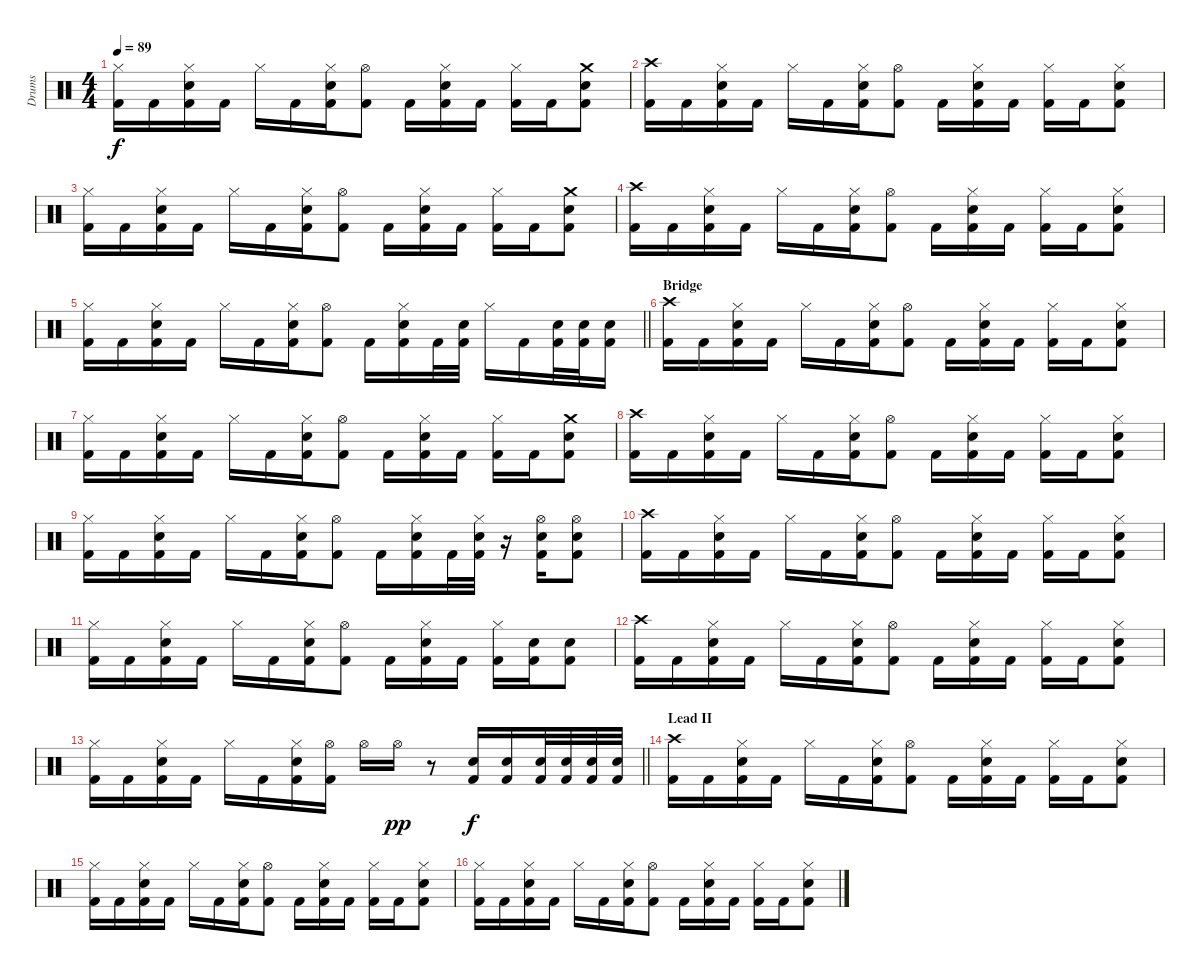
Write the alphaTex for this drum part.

\track ("Drums" "Drums") {instrument percussion}
\staff {score}
\articulation defaults
\ts (4 4)
\tempo 89
\clef neutral
\ks c
("Hi-Hat (closed)" "Kick (hit) 2").16{dy f} "Kick (hit) 2".16 ("Hi-Hat (closed)" "Snare (hit) 2" "Kick (hit) 2").16 "Kick (hit) 2".16 "Hi-Hat (closed)".16 "Kick (hit) 2".16 ("Hi-Hat (closed)" "Snare (hit) 2" "Kick (hit) 2").16 ("Hi-Hat (open)" "Kick (hit) 2").8 "Kick (hit) 2".16 ("Hi-Hat (closed)" "Snare (hit) 2" "Kick (hit) 2").16 "Kick (hit) 2".16 ("Hi-Hat (closed)" "Kick (hit) 2").16 "Kick (hit) 2".16 ("Crash medium (hit)" "Snare (hit) 2" "Kick (hit) 2").8 |
("Crash high (hit)" "Kick (hit) 2").16 "Kick (hit) 2".16 ("Hi-Hat (closed)" "Snare (hit) 2" "Kick (hit) 2").16 "Kick (hit) 2".16 "Hi-Hat (closed)".16 "Kick (hit) 2".16 ("Hi-Hat (closed)" "Snare (hit) 2" "Kick (hit) 2").16 ("Hi-Hat (open)" "Kick (hit) 2").8 "Kick (hit) 2".16 ("Hi-Hat (closed)" "Snare (hit) 2" "Kick (hit) 2").16 "Kick (hit) 2".16 ("Hi-Hat (closed)" "Kick (hit) 2").16 "Kick (hit) 2".16 ("Hi-Hat (closed)" "Snare (hit) 2" "Kick (hit) 2").8 |
("Hi-Hat (closed)" "Kick (hit) 2").16 "Kick (hit) 2".16 ("Hi-Hat (closed)" "Snare (hit) 2" "Kick (hit) 2").16 "Kick (hit) 2".16 "Hi-Hat (closed)".16 "Kick (hit) 2".16 ("Hi-Hat (closed)" "Snare (hit) 2" "Kick (hit) 2").16 ("Hi-Hat (open)" "Kick (hit) 2").8 "Kick (hit) 2".16 ("Hi-Hat (closed)" "Snare (hit) 2" "Kick (hit) 2").16 "Kick (hit) 2".16 ("Hi-Hat (closed)" "Kick (hit) 2").16 "Kick (hit) 2".16 ("Crash medium (hit)" "Snare (hit) 2" "Kick (hit) 2").8 |
("Crash high (hit)" "Kick (hit) 2").16 "Kick (hit) 2".16 ("Hi-Hat (closed)" "Snare (hit) 2" "Kick (hit) 2").16 "Kick (hit) 2".16 "Hi-Hat (closed)".16 "Kick (hit) 2".16 ("Hi-Hat (closed)" "Snare (hit) 2" "Kick (hit) 2").16 ("Hi-Hat (open)" "Kick (hit) 2").8 "Kick (hit) 2".16 ("Hi-Hat (closed)" "Snare (hit) 2" "Kick (hit) 2").16 "Kick (hit) 2".16 ("Hi-Hat (closed)" "Kick (hit) 2").16 "Kick (hit) 2".16 ("Hi-Hat (closed)" "Snare (hit) 2" "Kick (hit) 2").8 |
\barLineRight lightlight
("Hi-Hat (closed)" "Kick (hit) 2").16 "Kick (hit) 2".16 ("Hi-Hat (closed)" "Snare (hit) 2" "Kick (hit) 2").16 "Kick (hit) 2".16 "Hi-Hat (closed)".16 "Kick (hit) 2".16 ("Hi-Hat (closed)" "Snare (hit) 2" "Kick (hit) 2").16 ("Hi-Hat (open)" "Kick (hit) 2").8 "Kick (hit) 2".16 ("Hi-Hat (closed)" "Snare (hit) 2" "Kick (hit) 2").16 "Kick (hit) 2".32 ("Snare (hit) 2" "Kick (hit) 2").32 "Hi-Hat (closed)".16 "Kick (hit) 2".16 ("Snare (hit) 2" "Kick (hit) 2").32 ("Snare (hit) 2" "Kick (hit) 2").32 ("Snare (hit) 2" "Kick (hit) 2").16 |
\section ("" "Bridge")
("Crash high (hit)" "Kick (hit) 2").16 "Kick (hit) 2".16 ("Hi-Hat (closed)" "Snare (hit) 2" "Kick (hit) 2").16 "Kick (hit) 2".16 "Hi-Hat (closed)".16 "Kick (hit) 2".16 ("Hi-Hat (closed)" "Snare (hit) 2" "Kick (hit) 2").16 ("Hi-Hat (open)" "Kick (hit) 2").8 "Kick (hit) 2".16 ("Hi-Hat (closed)" "Snare (hit) 2" "Kick (hit) 2").16 "Kick (hit) 2".16 ("Hi-Hat (closed)" "Kick (hit) 2").16 "Kick (hit) 2".16 ("Hi-Hat (closed)" "Snare (hit) 2" "Kick (hit) 2").8 |
("Hi-Hat (closed)" "Kick (hit) 2").16 "Kick (hit) 2".16 ("Hi-Hat (closed)" "Snare (hit) 2" "Kick (hit) 2").16 "Kick (hit) 2".16 "Hi-Hat (closed)".16 "Kick (hit) 2".16 ("Hi-Hat (closed)" "Snare (hit) 2" "Kick (hit) 2").16 ("Hi-Hat (open)" "Kick (hit) 2").8 "Kick (hit) 2".16 ("Hi-Hat (closed)" "Snare (hit) 2" "Kick (hit) 2").16 "Kick (hit) 2".16 ("Hi-Hat (closed)" "Kick (hit) 2").16 "Kick (hit) 2".16 ("Crash medium (hit)" "Snare (hit) 2" "Kick (hit) 2").8 |
("Crash high (hit)" "Kick (hit) 2").16 "Kick (hit) 2".16 ("Hi-Hat (closed)" "Snare (hit) 2" "Kick (hit) 2").16 "Kick (hit) 2".16 "Hi-Hat (closed)".16 "Kick (hit) 2".16 ("Hi-Hat (closed)" "Snare (hit) 2" "Kick (hit) 2").16 ("Hi-Hat (open)" "Kick (hit) 2").8 "Kick (hit) 2".16 ("Hi-Hat (closed)" "Snare (hit) 2" "Kick (hit) 2").16 "Kick (hit) 2".16 ("Hi-Hat (closed)" "Kick (hit) 2").16 "Kick (hit) 2".16 ("Hi-Hat (closed)" "Snare (hit) 2" "Kick (hit) 2").8 |
("Hi-Hat (closed)" "Kick (hit) 2").16 "Kick (hit) 2".16 ("Hi-Hat (closed)" "Snare (hit) 2" "Kick (hit) 2").16 "Kick (hit) 2".16 "Hi-Hat (closed)".16 "Kick (hit) 2".16 ("Hi-Hat (closed)" "Snare (hit) 2" "Kick (hit) 2").16 ("Hi-Hat (open)" "Kick (hit) 2").8 "Kick (hit) 2".16 ("Hi-Hat (closed)" "Snare (hit) 2" "Kick (hit) 2").16 "Kick (hit) 2".32 ("Hi-Hat (closed)" "Snare (hit) 2" "Kick (hit) 2").32 r.16 ("Hi-Hat (open)" "Snare (hit) 2" "Kick (hit) 2").16 ("Hi-Hat (open)" "Snare (hit) 2" "Kick (hit) 2").8 |
("Crash high (hit)" "Kick (hit) 2").16 "Kick (hit) 2".16 ("Hi-Hat (closed)" "Snare (hit) 2" "Kick (hit) 2").16 "Kick (hit) 2".16 "Hi-Hat (closed)".16 "Kick (hit) 2".16 ("Hi-Hat (closed)" "Snare (hit) 2" "Kick (hit) 2").16 ("Hi-Hat (open)" "Kick (hit) 2").8 "Kick (hit) 2".16 ("Hi-Hat (closed)" "Snare (hit) 2" "Kick (hit) 2").16 "Kick (hit) 2".16 ("Hi-Hat (closed)" "Kick (hit) 2").16 "Kick (hit) 2".16 ("Hi-Hat (closed)" "Snare (hit) 2" "Kick (hit) 2").8 |
("Hi-Hat (closed)" "Kick (hit) 2").16 "Kick (hit) 2".16 ("Hi-Hat (closed)" "Snare (hit) 2" "Kick (hit) 2").16 "Kick (hit) 2".16 "Hi-Hat (closed)".16 "Kick (hit) 2".16 ("Hi-Hat (closed)" "Snare (hit) 2" "Kick (hit) 2").16 ("Hi-Hat (open)" "Kick (hit) 2").8 "Kick (hit) 2".16 ("Hi-Hat (closed)" "Snare (hit) 2" "Kick (hit) 2").16 "Kick (hit) 2".16 ("Hi-Hat (closed)" "Kick (hit) 2").16 ("Snare (hit) 2" "Kick (hit) 2").16 ("Snare (hit) 2" "Kick (hit) 2").8 |
("Crash high (hit)" "Kick (hit) 2").16 "Kick (hit) 2".16 ("Hi-Hat (closed)" "Snare (hit) 2" "Kick (hit) 2").16 "Kick (hit) 2".16 "Hi-Hat (closed)".16 "Kick (hit) 2".16 ("Hi-Hat (closed)" "Snare (hit) 2" "Kick (hit) 2").16 ("Hi-Hat (open)" "Kick (hit) 2").8 "Kick (hit) 2".16 ("Hi-Hat (closed)" "Snare (hit) 2" "Kick (hit) 2").16 "Kick (hit) 2".16 ("Hi-Hat (closed)" "Kick (hit) 2").16 "Kick (hit) 2".16 ("Hi-Hat (closed)" "Snare (hit) 2" "Kick (hit) 2").8 |
\barLineRight lightlight
("Hi-Hat (closed)" "Kick (hit) 2").16 "Kick (hit) 2".16 ("Hi-Hat (closed)" "Snare (hit) 2" "Kick (hit) 2").16 "Kick (hit) 2".16 "Hi-Hat (closed)".16 "Kick (hit) 2".16 ("Hi-Hat (closed)" "Snare (hit) 2" "Kick (hit) 2").16 ("Hi-Hat (open)" "Kick (hit) 2").16 "Hi-Hat (open)".16 "Hi-Hat (open)".16{dy pp} r.8 ("Snare (hit) 2" "Kick (hit) 2").16{dy f} ("Snare (hit) 2" "Kick (hit) 2").16 ("Snare (hit) 2" "Kick (hit) 2").32 ("Snare (hit) 2" "Kick (hit) 2").32 ("Snare (hit) 2" "Kick (hit) 2").32 ("Snare (hit) 2" "Kick (hit) 2").32 |
\section ("" "Lead II")
("Crash high (hit)" "Kick (hit) 2").16 "Kick (hit) 2".16 ("Hi-Hat (closed)" "Snare (hit) 2" "Kick (hit) 2").16 "Kick (hit) 2".16 "Hi-Hat (closed)".16 "Kick (hit) 2".16 ("Hi-Hat (closed)" "Snare (hit) 2" "Kick (hit) 2").16 ("Hi-Hat (open)" "Kick (hit) 2").8 "Kick (hit) 2".16 ("Hi-Hat (closed)" "Snare (hit) 2" "Kick (hit) 2").16 "Kick (hit) 2".16 ("Hi-Hat (closed)" "Kick (hit) 2").16 "Kick (hit) 2".16 ("Hi-Hat (closed)" "Snare (hit) 2" "Kick (hit) 2").8 |
("Hi-Hat (closed)" "Kick (hit) 2").16 "Kick (hit) 2".16 ("Hi-Hat (closed)" "Snare (hit) 2" "Kick (hit) 2").16 "Kick (hit) 2".16 "Hi-Hat (closed)".16 "Kick (hit) 2".16 ("Hi-Hat (closed)" "Snare (hit) 2" "Kick (hit) 2").16 ("Hi-Hat (open)" "Kick (hit) 2").8 "Kick (hit) 2".16 ("Hi-Hat (closed)" "Snare (hit) 2" "Kick (hit) 2").16 "Kick (hit) 2".16 ("Hi-Hat (closed)" "Kick (hit) 2").16 "Kick (hit) 2".16 ("Hi-Hat (closed)" "Snare (hit) 2" "Kick (hit) 2").8 |
("Hi-Hat (closed)" "Kick (hit) 2").16 "Kick (hit) 2".16 ("Hi-Hat (closed)" "Snare (hit) 2" "Kick (hit) 2").16 "Kick (hit) 2".16 "Hi-Hat (closed)".16 "Kick (hit) 2".16 ("Hi-Hat (closed)" "Snare (hit) 2" "Kick (hit) 2").16 ("Hi-Hat (open)" "Kick (hit) 2").8 "Kick (hit) 2".16 ("Hi-Hat (closed)" "Snare (hit) 2" "Kick (hit) 2").16 "Kick (hit) 2".16 ("Hi-Hat (closed)" "Kick (hit) 2").16 "Kick (hit) 2".16 ("Hi-Hat (closed)" "Snare (hit) 2" "Kick (hit) 2").8
